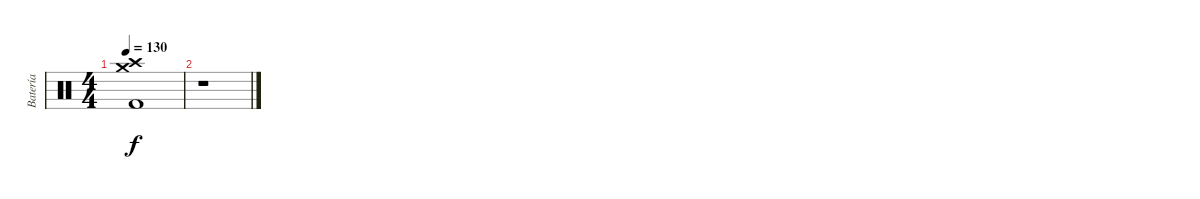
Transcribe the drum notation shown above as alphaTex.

\track ("Batería" "Batería") {instrument percussion}
\staff {score}
\articulation defaults
\ts (4 4)
\tempo 130
\clef neutral
\ks c
("Crash high (hit)" "Crash medium (hit)" "Kick (hit) 2").1{dy f} |
r.1
